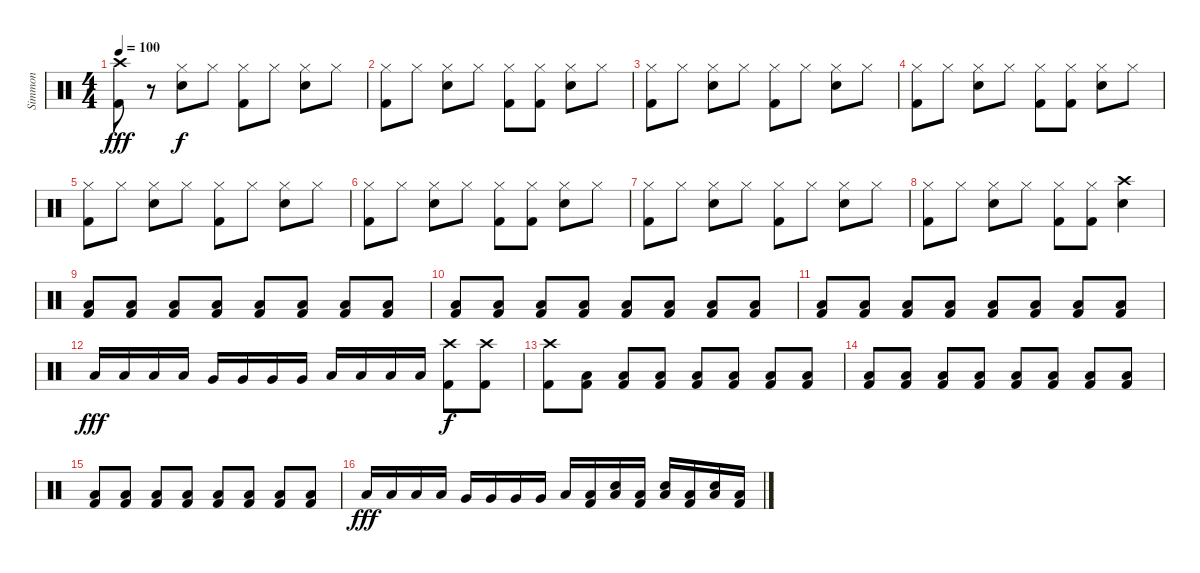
\track ("Simmon" "Simmon") {instrument percussion}
\staff {score}
\articulation defaults
\ts (4 4)
\tempo 100
\clef neutral
\ks c
("Kick (hit) 2" "Crash high (hit)").8{dy fff} r.8 ("Electric Snare (hit)" "Hi-Hat (closed)").8{dy f} "Hi-Hat (closed)".8 ("Kick (hit) 2" "Hi-Hat (closed)").8 "Hi-Hat (closed)".8 ("Electric Snare (hit)" "Hi-Hat (closed)").8 "Hi-Hat (closed)".8 |
("Kick (hit) 2" "Hi-Hat (closed)").8 "Hi-Hat (closed)".8 ("Electric Snare (hit)" "Hi-Hat (closed)").8 "Hi-Hat (closed)".8 ("Kick (hit) 2" "Hi-Hat (closed)").8 ("Kick (hit) 2" "Hi-Hat (closed)").8 ("Electric Snare (hit)" "Hi-Hat (closed)").8 "Hi-Hat (closed)".8 |
("Kick (hit) 2" "Hi-Hat (closed)").8 "Hi-Hat (closed)".8 ("Electric Snare (hit)" "Hi-Hat (closed)").8 "Hi-Hat (closed)".8 ("Kick (hit) 2" "Hi-Hat (closed)").8 "Hi-Hat (closed)".8 ("Electric Snare (hit)" "Hi-Hat (closed)").8 "Hi-Hat (closed)".8 |
("Kick (hit) 2" "Hi-Hat (closed)").8 "Hi-Hat (closed)".8 ("Electric Snare (hit)" "Hi-Hat (closed)").8 "Hi-Hat (closed)".8 ("Kick (hit) 2" "Hi-Hat (closed)").8 ("Kick (hit) 2" "Hi-Hat (closed)").8 ("Electric Snare (hit)" "Hi-Hat (closed)").8 "Hi-Hat (closed)".8 |
("Kick (hit) 2" "Hi-Hat (closed)").8 "Hi-Hat (closed)".8 ("Electric Snare (hit)" "Hi-Hat (closed)").8 "Hi-Hat (closed)".8 ("Kick (hit) 2" "Hi-Hat (closed)").8 "Hi-Hat (closed)".8 ("Electric Snare (hit)" "Hi-Hat (closed)").8 "Hi-Hat (closed)".8 |
("Kick (hit) 2" "Hi-Hat (closed)").8 "Hi-Hat (closed)".8 ("Electric Snare (hit)" "Hi-Hat (closed)").8 "Hi-Hat (closed)".8 ("Kick (hit) 2" "Hi-Hat (closed)").8 ("Kick (hit) 2" "Hi-Hat (closed)").8 ("Electric Snare (hit)" "Hi-Hat (closed)").8 "Hi-Hat (closed)".8 |
("Kick (hit) 2" "Hi-Hat (closed)").8 "Hi-Hat (closed)".8 ("Electric Snare (hit)" "Hi-Hat (closed)").8 "Hi-Hat (closed)".8 ("Kick (hit) 2" "Hi-Hat (closed)").8 "Hi-Hat (closed)".8 ("Electric Snare (hit)" "Hi-Hat (closed)").8 "Hi-Hat (closed)".8 |
("Kick (hit) 2" "Hi-Hat (closed)").8 "Hi-Hat (closed)".8 ("Electric Snare (hit)" "Hi-Hat (closed)").8 "Hi-Hat (closed)".8 ("Kick (hit) 2" "Hi-Hat (closed)").8 ("Kick (hit) 2" "Hi-Hat (closed)").8 ("Electric Snare (hit)" "Crash high (hit)").4 |
("Kick (hit) 2" "Low Floor Tom (hit)").8 ("Kick (hit) 2" "Low Floor Tom (hit)").8 ("Kick (hit) 2" "Low Floor Tom (hit)").8 ("Kick (hit) 2" "Low Floor Tom (hit)").8 ("Kick (hit) 2" "Low Floor Tom (hit)").8 ("Kick (hit) 2" "Low Floor Tom (hit)").8 ("Kick (hit) 2" "Low Floor Tom (hit)").8 ("Kick (hit) 2" "Low Floor Tom (hit)").8 |
("Kick (hit) 2" "Low Floor Tom (hit)").8 ("Kick (hit) 2" "Low Floor Tom (hit)").8 ("Kick (hit) 2" "Low Floor Tom (hit)").8 ("Kick (hit) 2" "Low Floor Tom (hit)").8 ("Kick (hit) 2" "Low Floor Tom (hit)").8 ("Kick (hit) 2" "Low Floor Tom (hit)").8 ("Kick (hit) 2" "Low Floor Tom (hit)").8 ("Kick (hit) 2" "Low Floor Tom (hit)").8 |
("Kick (hit) 2" "Low Floor Tom (hit)").8 ("Kick (hit) 2" "Low Floor Tom (hit)").8 ("Kick (hit) 2" "Low Floor Tom (hit)").8 ("Kick (hit) 2" "Low Floor Tom (hit)").8 ("Kick (hit) 2" "Low Floor Tom (hit)").8 ("Kick (hit) 2" "Low Floor Tom (hit)").8 ("Kick (hit) 2" "Low Floor Tom (hit)").8 ("Kick (hit) 2" "Low Floor Tom (hit)").8 |
"Low Floor Tom (hit)".16{dy fff} "Low Floor Tom (hit)".16 "Low Floor Tom (hit)".16 "Low Floor Tom (hit)".16 "Very Low Tom (hit)".16 "Very Low Tom (hit)".16 "Very Low Tom (hit)".16 "Very Low Tom (hit)".16 "Low Tom (hit)".16 "Low Tom (hit)".16 "Low Tom (hit)".16 "Low Tom (hit)".16 ("Crash high (hit)" "Kick (hit) 2").8{dy f} ("Crash high (hit)" "Kick (hit) 2").8 |
("Crash high (hit)" "Kick (hit) 2").8 ("Kick (hit) 2" "Low Floor Tom (hit)").8 ("Kick (hit) 2" "Low Floor Tom (hit)").8 ("Kick (hit) 2" "Low Floor Tom (hit)").8 ("Kick (hit) 2" "Low Floor Tom (hit)").8 ("Kick (hit) 2" "Low Floor Tom (hit)").8 ("Kick (hit) 2" "Low Floor Tom (hit)").8 ("Kick (hit) 2" "Low Floor Tom (hit)").8 |
("Kick (hit) 2" "Low Floor Tom (hit)").8 ("Kick (hit) 2" "Low Floor Tom (hit)").8 ("Kick (hit) 2" "Low Floor Tom (hit)").8 ("Kick (hit) 2" "Low Floor Tom (hit)").8 ("Kick (hit) 2" "Low Floor Tom (hit)").8 ("Kick (hit) 2" "Low Floor Tom (hit)").8 ("Kick (hit) 2" "Low Floor Tom (hit)").8 ("Kick (hit) 2" "Low Floor Tom (hit)").8 |
("Kick (hit) 2" "Low Floor Tom (hit)").8 ("Kick (hit) 2" "Low Floor Tom (hit)").8 ("Kick (hit) 2" "Low Floor Tom (hit)").8 ("Kick (hit) 2" "Low Floor Tom (hit)").8 ("Kick (hit) 2" "Low Floor Tom (hit)").8 ("Kick (hit) 2" "Low Floor Tom (hit)").8 ("Kick (hit) 2" "Low Floor Tom (hit)").8 ("Kick (hit) 2" "Low Floor Tom (hit)").8 |
"Low Floor Tom (hit)".16{dy fff} "Low Floor Tom (hit)".16 "Low Floor Tom (hit)".16 "Low Floor Tom (hit)".16 "Very Low Tom (hit)".16 "Very Low Tom (hit)".16 "Very Low Tom (hit)".16 "Very Low Tom (hit)".16 "Low Tom (hit)".16 ("Kick (hit) 2" "Low Tom (hit)").16 ("Electric Snare (hit)" "Low Tom (hit)").16 ("Kick (hit) 2" "Low Tom (hit)").16 ("Electric Snare (hit)" "Low Tom (hit)").16 ("Kick (hit) 2" "Low Tom (hit)").16 ("Electric Snare (hit)" "Low Tom (hit)").16 ("Kick (hit) 2" "Low Tom (hit)").16
